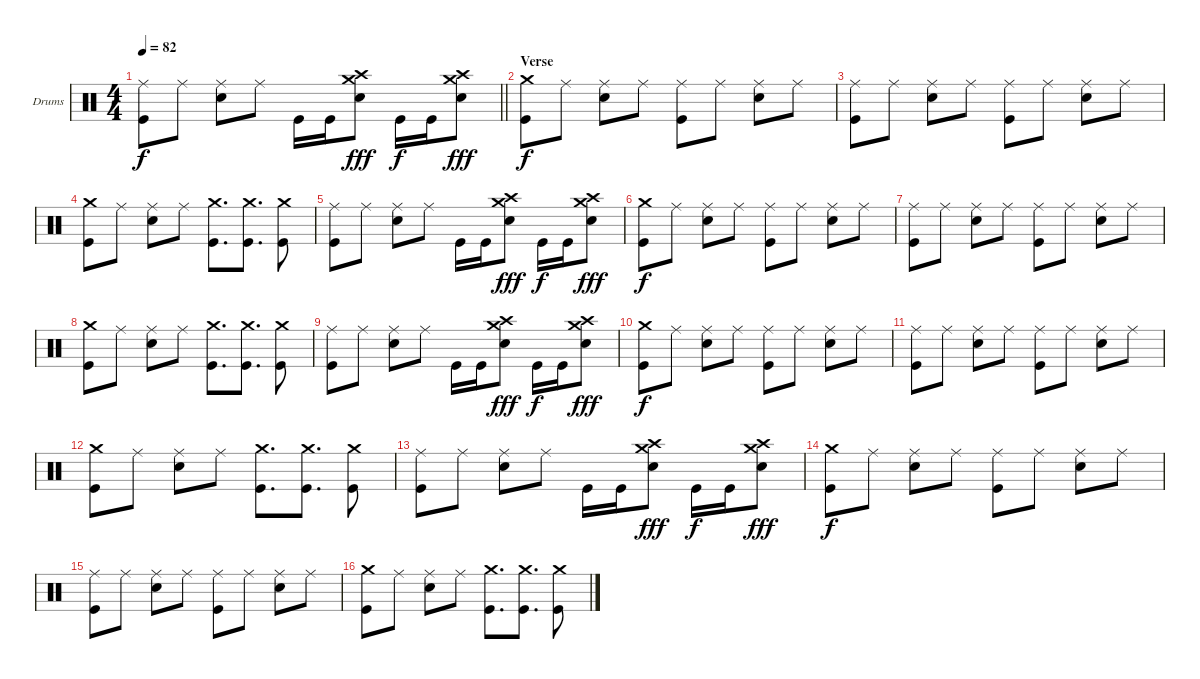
\bracketExtendMode groupsimilarinstruments
\firstSystemTrackNameOrientation horizontal
\otherSystemsTrackNameOrientation horizontal
\track ("Drumkit" "Drums") {instrument percussion}
\staff {score}
\articulation defaults
\ts (4 4)
\tempo 82
\clef neutral
\barLineRight lightlight
\ks c
("Kick (hit)" "Ride (middle)").8{dy f} "Ride (middle)".8 ("Snare (hit) 2" "Ride (middle)").8 "Ride (middle)".8 "Kick (hit)".16 "Kick (hit)".16 ("Snare (hit) 2" "Crash medium (hit)" "Crash high (hit)").8{dy fff} "Kick (hit)".16{dy f} "Kick (hit)".16 ("Snare (hit) 2" "Crash medium (hit)" "Crash high (hit)").8{dy fff} |
\section ("" "Verse")
("Kick (hit)" "Crash medium (hit)").8{dy f} "Ride (middle)".8 ("Snare (hit) 2" "Ride (middle)").8 "Ride (middle)".8 ("Kick (hit)" "Ride (middle)").8 "Ride (middle)".8 ("Snare (hit) 2" "Ride (middle)").8 "Ride (middle)".8 |
("Kick (hit)" "Ride (middle)").8 "Ride (middle)".8 ("Snare (hit) 2" "Ride (middle)").8 "Ride (middle)".8 ("Kick (hit)" "Ride (middle)").8 "Ride (middle)".8 ("Snare (hit) 2" "Ride (middle)").8 "Ride (middle)".8 |
("Kick (hit)" "Crash medium (hit)").8 "Ride (middle)".8 ("Snare (hit) 2" "Ride (middle)").8 "Ride (middle)".8 ("Kick (hit)" "Crash medium (hit)").8{d} ("Kick (hit)" "Crash medium (hit)").8{d} ("Kick (hit)" "Crash medium (hit)").8 |
("Kick (hit)" "Ride (middle)").8 "Ride (middle)".8 ("Snare (hit) 2" "Ride (middle)").8 "Ride (middle)".8 "Kick (hit)".16 "Kick (hit)".16 ("Snare (hit) 2" "Crash medium (hit)" "Crash high (hit)").8{dy fff} "Kick (hit)".16{dy f} "Kick (hit)".16 ("Snare (hit) 2" "Crash medium (hit)" "Crash high (hit)").8{dy fff} |
("Kick (hit)" "Crash medium (hit)").8{dy f} "Ride (middle)".8 ("Snare (hit) 2" "Ride (middle)").8 "Ride (middle)".8 ("Kick (hit)" "Ride (middle)").8 "Ride (middle)".8 ("Snare (hit) 2" "Ride (middle)").8 "Ride (middle)".8 |
("Kick (hit)" "Ride (middle)").8 "Ride (middle)".8 ("Snare (hit) 2" "Ride (middle)").8 "Ride (middle)".8 ("Kick (hit)" "Ride (middle)").8 "Ride (middle)".8 ("Snare (hit) 2" "Ride (middle)").8 "Ride (middle)".8 |
("Kick (hit)" "Crash medium (hit)").8 "Ride (middle)".8 ("Snare (hit) 2" "Ride (middle)").8 "Ride (middle)".8 ("Kick (hit)" "Crash medium (hit)").8{d} ("Kick (hit)" "Crash medium (hit)").8{d} ("Kick (hit)" "Crash medium (hit)").8 |
("Kick (hit)" "Ride (middle)").8 "Ride (middle)".8 ("Snare (hit) 2" "Ride (middle)").8 "Ride (middle)".8 "Kick (hit)".16 "Kick (hit)".16 ("Snare (hit) 2" "Crash medium (hit)" "Crash high (hit)").8{dy fff} "Kick (hit)".16{dy f} "Kick (hit)".16 ("Snare (hit) 2" "Crash medium (hit)" "Crash high (hit)").8{dy fff} |
("Kick (hit)" "Crash medium (hit)").8{dy f} "Ride (middle)".8 ("Snare (hit) 2" "Ride (middle)").8 "Ride (middle)".8 ("Kick (hit)" "Ride (middle)").8 "Ride (middle)".8 ("Snare (hit) 2" "Ride (middle)").8 "Ride (middle)".8 |
("Kick (hit)" "Ride (middle)").8 "Ride (middle)".8 ("Snare (hit) 2" "Ride (middle)").8 "Ride (middle)".8 ("Kick (hit)" "Ride (middle)").8 "Ride (middle)".8 ("Snare (hit) 2" "Ride (middle)").8 "Ride (middle)".8 |
("Kick (hit)" "Crash medium (hit)").8 "Ride (middle)".8 ("Snare (hit) 2" "Ride (middle)").8 "Ride (middle)".8 ("Kick (hit)" "Crash medium (hit)").8{d} ("Kick (hit)" "Crash medium (hit)").8{d} ("Kick (hit)" "Crash medium (hit)").8 |
("Kick (hit)" "Ride (middle)").8 "Ride (middle)".8 ("Snare (hit) 2" "Ride (middle)").8 "Ride (middle)".8 "Kick (hit)".16 "Kick (hit)".16 ("Snare (hit) 2" "Crash medium (hit)" "Crash high (hit)").8{dy fff} "Kick (hit)".16{dy f} "Kick (hit)".16 ("Snare (hit) 2" "Crash medium (hit)" "Crash high (hit)").8{dy fff} |
("Kick (hit)" "Crash medium (hit)").8{dy f} "Ride (middle)".8 ("Snare (hit) 2" "Ride (middle)").8 "Ride (middle)".8 ("Kick (hit)" "Ride (middle)").8 "Ride (middle)".8 ("Snare (hit) 2" "Ride (middle)").8 "Ride (middle)".8 |
("Kick (hit)" "Ride (middle)").8 "Ride (middle)".8 ("Snare (hit) 2" "Ride (middle)").8 "Ride (middle)".8 ("Kick (hit)" "Ride (middle)").8 "Ride (middle)".8 ("Snare (hit) 2" "Ride (middle)").8 "Ride (middle)".8 |
("Kick (hit)" "Crash medium (hit)").8 "Ride (middle)".8 ("Snare (hit) 2" "Ride (middle)").8 "Ride (middle)".8 ("Kick (hit)" "Crash medium (hit)").8{d} ("Kick (hit)" "Crash medium (hit)").8{d} ("Kick (hit)" "Crash medium (hit)").8
